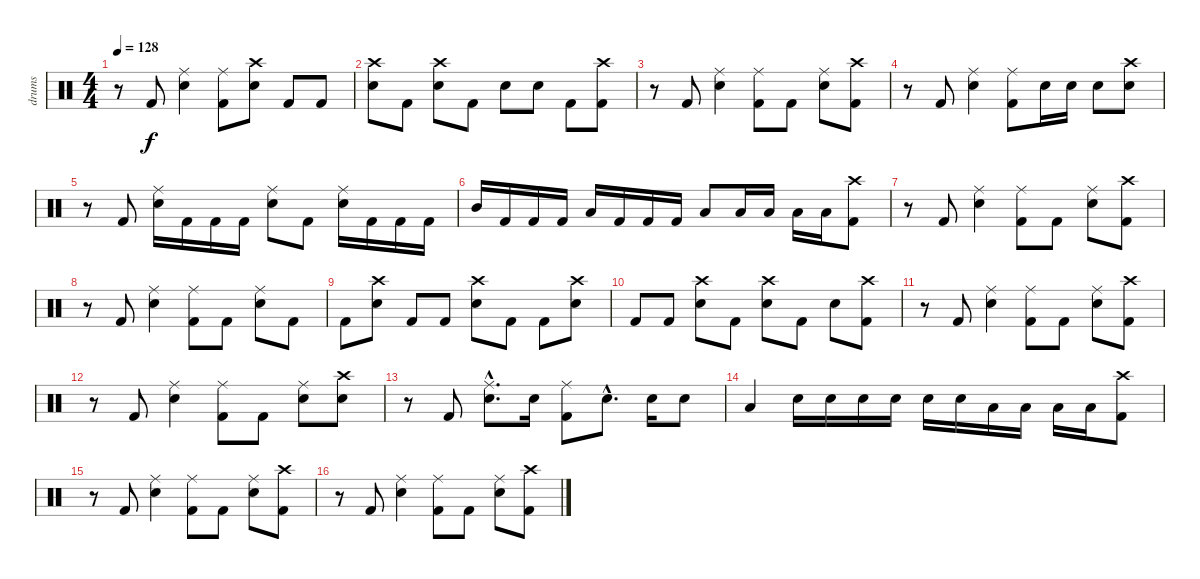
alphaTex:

\track ("drums" "drums") {instrument percussion}
\staff {score}
\articulation defaults
\ts (4 4)
\tempo 128
\clef neutral
\ks c
r.8{dy f} "Kick (hit) 2".8 ("Ride (middle)" "Electric Snare (hit)").4 ("Ride (middle)" "Kick (hit) 2").8 ("Crash high (hit)" "Electric Snare (hit)").8 "Kick (hit) 2".8 "Kick (hit) 2".8 |
("Crash high (hit)" "Electric Snare (hit)").8 "Kick (hit) 2".8 ("Crash high (hit)" "Electric Snare (hit)").8 "Kick (hit) 2".8 "Electric Snare (hit)".8 "Electric Snare (hit)".8 "Kick (hit) 2".8 ("Crash high (hit)" "Kick (hit) 2").8 |
r.8 "Kick (hit) 2".8 ("Ride (middle)" "Electric Snare (hit)").4 ("Ride (middle)" "Kick (hit) 2").8 "Kick (hit) 2".8 ("Ride (middle)" "Electric Snare (hit)").8 ("Crash high (hit)" "Kick (hit) 2").8 |
r.8 "Kick (hit) 2".8 ("Ride (middle)" "Electric Snare (hit)").4 ("Ride (middle)" "Kick (hit) 2").8 "Electric Snare (hit)".16 "Electric Snare (hit)".16 "Electric Snare (hit)".8 ("Crash high (hit)" "Electric Snare (hit)").8 |
r.8 "Kick (hit) 2".8 ("Ride (middle)" "Electric Snare (hit)").16 "Kick (hit) 2".16 "Kick (hit) 2".16 "Kick (hit) 2".16 ("Ride (middle)" "Electric Snare (hit)").8 "Kick (hit) 2".8 ("Ride (middle)" "Electric Snare (hit)").16 "Kick (hit) 2".16 "Kick (hit) 2".16 "Kick (hit) 2".16 |
"Mid Tom (hit)".16 "Kick (hit) 2".16 "Kick (hit) 2".16 "Kick (hit) 2".16 "Low Tom (hit)".16 "Kick (hit) 2".16 "Kick (hit) 2".16 "Kick (hit) 2".16 "Low Floor Tom (hit)".8 "Low Floor Tom (hit)".16 "Low Floor Tom (hit)".16 "Low Floor Tom (hit)".16 "Low Floor Tom (hit)".16 ("Crash high (hit)" "Kick (hit) 2").8 |
r.8 "Kick (hit) 2".8 ("Ride (middle)" "Electric Snare (hit)").4 ("Ride (middle)" "Kick (hit) 2").8 "Kick (hit) 2".8 ("Ride (middle)" "Electric Snare (hit)").8 ("Crash high (hit)" "Kick (hit) 2").8 |
r.8 "Kick (hit) 2".8 ("Ride (middle)" "Electric Snare (hit)").4 ("Ride (middle)" "Kick (hit) 2").8 "Kick (hit) 2".8 ("Ride (middle)" "Electric Snare (hit)").8 "Kick (hit) 2".8 |
"Kick (hit) 2".8 ("Crash high (hit)" "Electric Snare (hit)").8 "Kick (hit) 2".8 "Kick (hit) 2".8 ("Crash high (hit)" "Electric Snare (hit)").8 "Kick (hit) 2".8 "Kick (hit) 2".8 ("Crash high (hit)" "Electric Snare (hit)").8 |
"Kick (hit) 2".8 "Kick (hit) 2".8 ("Crash high (hit)" "Electric Snare (hit)").8 "Kick (hit) 2".8 ("Crash high (hit)" "Electric Snare (hit)").8 "Kick (hit) 2".8 "Electric Snare (hit)".8 ("Crash high (hit)" "Kick (hit) 2").8 |
r.8 "Kick (hit) 2".8 ("Ride (middle)" "Electric Snare (hit)").4 ("Ride (middle)" "Kick (hit) 2").8 "Kick (hit) 2".8 ("Ride (middle)" "Electric Snare (hit)").8 ("Crash high (hit)" "Kick (hit) 2").8 |
r.8 "Kick (hit) 2".8 ("Ride (middle)" "Electric Snare (hit)").4 ("Ride (middle)" "Kick (hit) 2").8 "Kick (hit) 2".8 ("Ride (middle)" "Electric Snare (hit)").8 ("Crash high (hit)" "Electric Snare (hit)").8 |
r.8 "Kick (hit) 2".8 ("Ride (middle)"{hac} "Electric Snare (hit)"{hac}).8{d} "Electric Snare (hit)".16 ("Ride (middle)" "Kick (hit) 2").8 "Electric Snare (hit)"{hac}.8{d} "Electric Snare (hit)".16 "Electric Snare (hit)".8 |
"Low Tom (hit)".4 "Electric Snare (hit)".16 "Electric Snare (hit)".16 "Electric Snare (hit)".16 "Electric Snare (hit)".16 "Electric Snare (hit)".16 "Electric Snare (hit)".16 "Low Tom (hit)".16 "Low Tom (hit)".16 "Low Floor Tom (hit)".16 "Low Floor Tom (hit)".16 ("Crash high (hit)" "Kick (hit) 2").8 |
r.8 "Kick (hit) 2".8 ("Ride (middle)" "Electric Snare (hit)").4 ("Ride (middle)" "Kick (hit) 2").8 "Kick (hit) 2".8 ("Ride (middle)" "Electric Snare (hit)").8 ("Crash high (hit)" "Kick (hit) 2").8 |
r.8 "Kick (hit) 2".8 ("Ride (middle)" "Electric Snare (hit)").4 ("Ride (middle)" "Kick (hit) 2").8 "Kick (hit) 2".8 ("Ride (middle)" "Electric Snare (hit)").8 ("Crash high (hit)" "Kick (hit) 2").8
